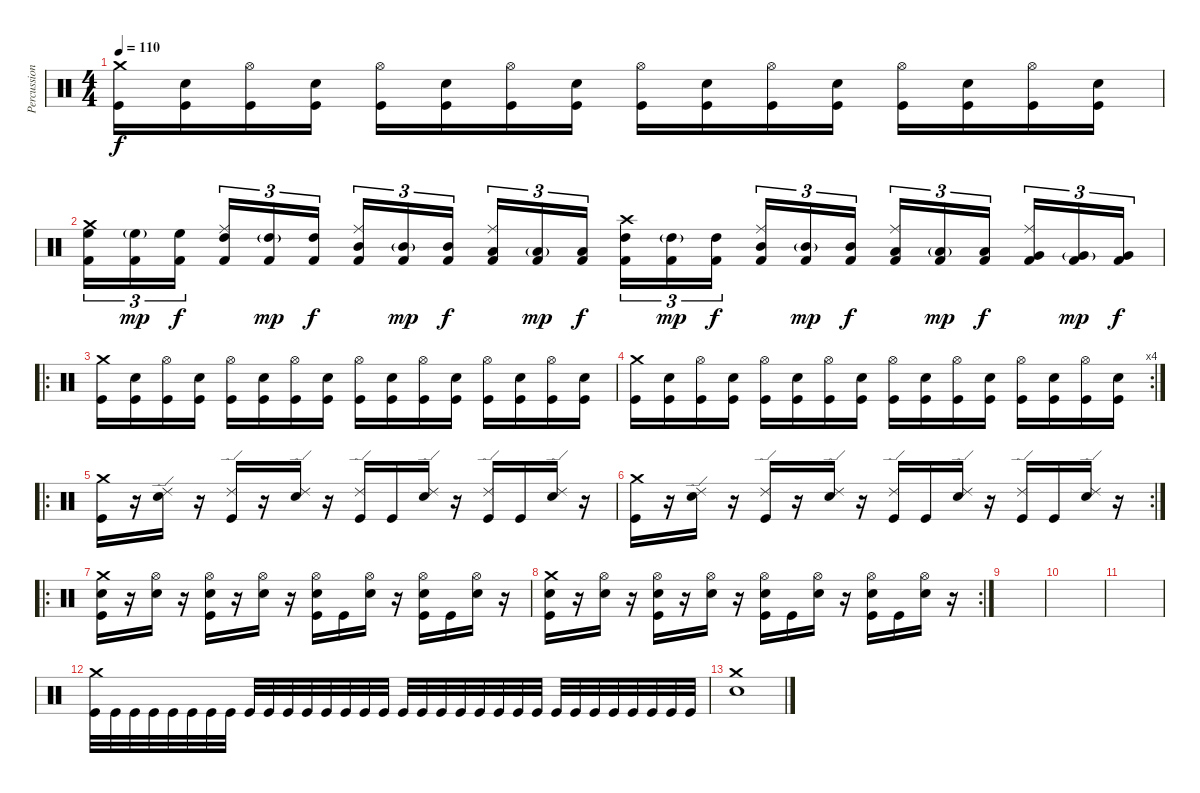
\track ("Percussion" "Percussion") {instrument percussion}
\staff {score}
\articulation defaults
\ts (4 4)
\tempo 110
\clef neutral
\ks c
("Crash medium (hit)" "Kick (hit)").16{dy f} ("Electric Snare (hit)" "Kick (hit)").16 ("Hi-Hat (open)" "Kick (hit)").16 ("Electric Snare (hit)" "Kick (hit)").16 ("Hi-Hat (open)" "Kick (hit)").16 ("Electric Snare (hit)" "Kick (hit)").16 ("Hi-Hat (open)" "Kick (hit)").16 ("Electric Snare (hit)" "Kick (hit)").16 ("Hi-Hat (open)" "Kick (hit)").16 ("Electric Snare (hit)" "Kick (hit)").16 ("Hi-Hat (open)" "Kick (hit)").16 ("Electric Snare (hit)" "Kick (hit)").16 ("Hi-Hat (open)" "Kick (hit)").16 ("Electric Snare (hit)" "Kick (hit)").16 ("Hi-Hat (open)" "Kick (hit)").16 ("Electric Snare (hit)" "Kick (hit)").16 |
("Crash medium (hit)" "High Floor Tom (hit)" "Kick (hit) 2").16{tu (3 2)} ("High Floor Tom (hit)"{g} "Kick (hit) 2").16{tu (3 2) dy mp} ("High Floor Tom (hit)" "Kick (hit) 2").16{tu (3 2) dy f} ("Ride (middle)" "High Tom (hit)" "Kick (hit) 2").16{tu (3 2)} ("High Tom (hit)"{g} "Kick (hit) 2").16{tu (3 2) dy mp} ("High Tom (hit)" "Kick (hit) 2").16{tu (3 2) dy f} ("Ride (middle)" "Mid Tom (hit)" "Kick (hit) 2").16{tu (3 2)} ("Mid Tom (hit)"{g} "Kick (hit) 2").16{tu (3 2) dy mp} ("Mid Tom (hit)" "Kick (hit) 2").16{tu (3 2) dy f} ("Ride (middle)" "Low Tom (hit)" "Kick (hit) 2").16{tu (3 2)} ("Low Tom (hit)"{g} "Kick (hit) 2").16{tu (3 2) dy mp} ("Low Tom (hit)" "Kick (hit) 2").16{tu (3 2) dy f} ("Crash high (hit)" "High Tom (hit)" "Kick (hit) 2").16{tu (3 2)} ("High Tom (hit)"{g} "Kick (hit) 2").16{tu (3 2) dy mp} ("High Tom (hit)" "Kick (hit) 2").16{tu (3 2) dy f} ("Ride (middle)" "Mid Tom (hit)" "Kick (hit) 2").16{tu (3 2)} ("Mid Tom (hit)"{g} "Kick (hit) 2").16{tu (3 2) dy mp} ("Mid Tom (hit)" "Kick (hit) 2").16{tu (3 2) dy f} ("Ride (middle)" "Low Tom (hit)" "Kick (hit) 2").16{tu (3 2)} ("Low Tom (hit)"{g} "Kick (hit) 2").16{tu (3 2) dy mp} ("Low Tom (hit)" "Kick (hit) 2").16{tu (3 2) dy f} ("Ride (middle)" "Very Low Tom (hit)" "Kick (hit) 2").16{tu (3 2)} ("Very Low Tom (hit)"{g} "Kick (hit) 2").16{tu (3 2) dy mp} ("Very Low Tom (hit)" "Kick (hit) 2").16{tu (3 2) dy f} |
\ro
("Crash medium (hit)" "Kick (hit)").16 ("Electric Snare (hit)" "Kick (hit)").16 ("Hi-Hat (open)" "Kick (hit)").16 ("Electric Snare (hit)" "Kick (hit)").16 ("Hi-Hat (open)" "Kick (hit)").16 ("Electric Snare (hit)" "Kick (hit)").16 ("Hi-Hat (open)" "Kick (hit)").16 ("Electric Snare (hit)" "Kick (hit)").16 ("Hi-Hat (open)" "Kick (hit)").16 ("Electric Snare (hit)" "Kick (hit)").16 ("Hi-Hat (open)" "Kick (hit)").16 ("Electric Snare (hit)" "Kick (hit)").16 ("Hi-Hat (open)" "Kick (hit)").16 ("Electric Snare (hit)" "Kick (hit)").16 ("Hi-Hat (open)" "Kick (hit)").16 ("Electric Snare (hit)" "Kick (hit)").16 |
\rc 4
("Crash medium (hit)" "Kick (hit)").16 ("Electric Snare (hit)" "Kick (hit)").16 ("Hi-Hat (open)" "Kick (hit)").16 ("Electric Snare (hit)" "Kick (hit)").16 ("Hi-Hat (open)" "Kick (hit)").16 ("Electric Snare (hit)" "Kick (hit)").16 ("Hi-Hat (open)" "Kick (hit)").16 ("Electric Snare (hit)" "Kick (hit)").16 ("Hi-Hat (open)" "Kick (hit)").16 ("Electric Snare (hit)" "Kick (hit)").16 ("Hi-Hat (open)" "Kick (hit)").16 ("Electric Snare (hit)" "Kick (hit)").16 ("Hi-Hat (open)" "Kick (hit)").16 ("Electric Snare (hit)" "Kick (hit)").16 ("Hi-Hat (open)" "Kick (hit)").16 ("Electric Snare (hit)" "Kick (hit)").16 |
\ro
("Crash medium (hit)" "Kick (hit)").16 r.16 ("Ride (edge) 2" "Electric Snare (hit)").16 r.16 ("Ride (edge) 2" "Kick (hit)").16 r.16 ("Ride (edge) 2" "Electric Snare (hit)").16 r.16 ("Ride (edge) 2" "Kick (hit)").16 "Kick (hit)".16 ("Ride (edge) 2" "Electric Snare (hit)").16 r.16 ("Ride (edge) 2" "Kick (hit)").16 "Kick (hit)".16 ("Ride (edge) 2" "Electric Snare (hit)").16 r.16 |
\rc 2
("Crash medium (hit)" "Kick (hit)").16 r.16 ("Ride (edge) 2" "Electric Snare (hit)").16 r.16 ("Ride (edge) 2" "Kick (hit)").16 r.16 ("Ride (edge) 2" "Electric Snare (hit)").16 r.16 ("Ride (edge) 2" "Kick (hit)").16 "Kick (hit)".16 ("Ride (edge) 2" "Electric Snare (hit)").16 r.16 ("Ride (edge) 2" "Kick (hit)").16 "Kick (hit)".16 ("Ride (edge) 2" "Electric Snare (hit)").16 r.16 |
\ro
("Crash medium (hit)" "Electric Snare (hit)" "Kick (hit)").16 r.16 ("Hi-Hat (open)" "Electric Snare (hit)").16 r.16 ("Hi-Hat (open)" "Electric Snare (hit)" "Kick (hit)").16 r.16 ("Hi-Hat (open)" "Electric Snare (hit)").16 r.16 ("Hi-Hat (open)" "Electric Snare (hit)" "Kick (hit)").16 "Kick (hit)".16 ("Hi-Hat (open)" "Electric Snare (hit)").16 r.16 ("Hi-Hat (open)" "Electric Snare (hit)" "Kick (hit)").16 "Kick (hit)".16 ("Hi-Hat (open)" "Electric Snare (hit)").16 r.16 |
\rc 2
("Crash medium (hit)" "Electric Snare (hit)" "Kick (hit)").16 r.16 ("Hi-Hat (open)" "Electric Snare (hit)").16 r.16 ("Hi-Hat (open)" "Electric Snare (hit)" "Kick (hit)").16 r.16 ("Hi-Hat (open)" "Electric Snare (hit)").16 r.16 ("Hi-Hat (open)" "Electric Snare (hit)" "Kick (hit)").16 "Kick (hit)".16 ("Hi-Hat (open)" "Electric Snare (hit)").16 r.16 ("Hi-Hat (open)" "Electric Snare (hit)" "Kick (hit)").16 "Kick (hit)".16 ("Hi-Hat (open)" "Electric Snare (hit)").16 r.16 |
|
|
|
("Crash medium (hit)" "Kick (hit)").32 "Kick (hit)".32 "Kick (hit)".32 "Kick (hit)".32 "Kick (hit)".32 "Kick (hit)".32 "Kick (hit)".32 "Kick (hit)".32 "Kick (hit)".32 "Kick (hit)".32 "Kick (hit)".32 "Kick (hit)".32 "Kick (hit)".32 "Kick (hit)".32 "Kick (hit)".32 "Kick (hit)".32 "Kick (hit)".32 "Kick (hit)".32 "Kick (hit)".32 "Kick (hit)".32 "Kick (hit)".32 "Kick (hit)".32 "Kick (hit)".32 "Kick (hit)".32 "Kick (hit)".32 "Kick (hit)".32 "Kick (hit)".32 "Kick (hit)".32 "Kick (hit)".32 "Kick (hit)".32 "Kick (hit)".32 "Kick (hit)".32 |
("Crash medium (hit)" "Electric Snare (hit)").1
